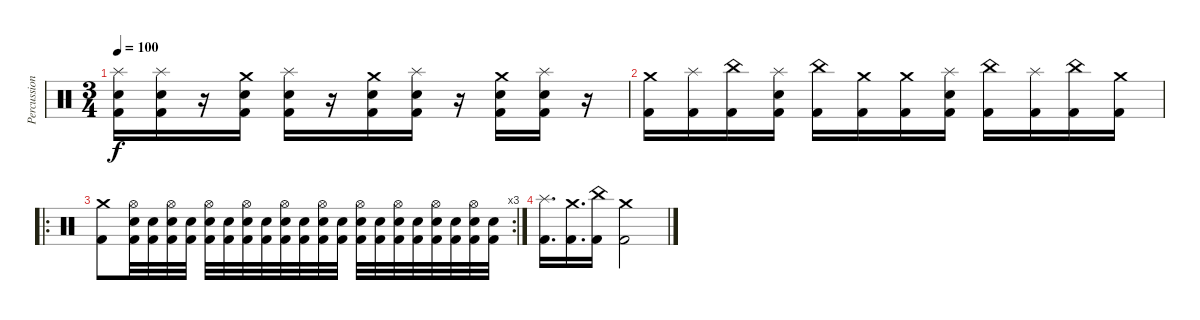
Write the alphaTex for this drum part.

\track ("Percussion" "Percussion") {instrument percussion}
\staff {score}
\articulation defaults
\ts (3 4)
\tempo 100
\clef neutral
\ks c
("Splash (hit)" "Electric Snare (hit)" "Kick (hit) 2").16{dy f} ("Splash (hit)" "Electric Snare (hit)" "Kick (hit) 2").16 r.16 ("Crash medium (hit)" "Electric Snare (hit)" "Kick (hit) 2").16 ("Splash (hit)" "Electric Snare (hit)" "Kick (hit) 2").16 r.16 ("Crash medium (hit)" "Electric Snare (hit)" "Kick (hit) 2").16 ("Splash (hit)" "Electric Snare (hit)" "Kick (hit) 2").16 r.16 ("Crash medium (hit)" "Electric Snare (hit)" "Kick (hit) 2").16 ("Splash (hit)" "Electric Snare (hit)" "Kick (hit) 2").16 r.16 |
("Crash medium (hit)" "Kick (hit) 2").16 ("Splash (hit)" "Kick (hit) 2").16 ("China (hit)" "Kick (hit) 2").16 ("Splash (hit)" "Electric Snare (hit)" "Kick (hit) 2").16 ("China (hit)" "Kick (hit) 2").16 ("Crash medium (hit)" "Kick (hit) 2").16 ("Crash medium (hit)" "Kick (hit) 2").16 ("Splash (hit)" "Electric Snare (hit)" "Kick (hit) 2").16 ("China (hit)" "Kick (hit) 2").16 ("Splash (hit)" "Kick (hit) 2").16 ("China (hit)" "Kick (hit) 2").16 ("Crash medium (hit)" "Kick (hit) 2").16 |
\ro
\rc 3
("Crash medium (hit)" "Kick (hit) 2").8 ("Hi-Hat (open)" "Electric Snare (hit)" "Kick (hit) 2").32 ("Electric Snare (hit)" "Kick (hit) 2").32 ("Hi-Hat (open)" "Electric Snare (hit)" "Kick (hit) 2").32 ("Electric Snare (hit)" "Kick (hit) 2").32 ("Hi-Hat (open)" "Electric Snare (hit)" "Kick (hit) 2").32 ("Electric Snare (hit)" "Kick (hit) 2").32 ("Hi-Hat (open)" "Electric Snare (hit)" "Kick (hit) 2").32 ("Electric Snare (hit)" "Kick (hit) 2").32 ("Hi-Hat (open)" "Electric Snare (hit)" "Kick (hit) 2").32 ("Electric Snare (hit)" "Kick (hit) 2").32 ("Hi-Hat (open)" "Electric Snare (hit)" "Kick (hit) 2").32 ("Electric Snare (hit)" "Kick (hit) 2").32 ("Hi-Hat (open)" "Electric Snare (hit)" "Kick (hit) 2").32 ("Electric Snare (hit)" "Kick (hit) 2").32 ("Hi-Hat (open)" "Electric Snare (hit)" "Kick (hit) 2").32 ("Electric Snare (hit)" "Kick (hit) 2").32 ("Hi-Hat (open)" "Electric Snare (hit)" "Kick (hit) 2").32 ("Electric Snare (hit)" "Kick (hit) 2").32 ("Hi-Hat (open)" "Electric Snare (hit)" "Kick (hit) 2").32 ("Electric Snare (hit)" "Kick (hit) 2").32 |
("Splash (hit)" "Kick (hit) 2").16{d} ("Crash medium (hit)" "Kick (hit) 2").16{d} ("China (hit)" "Kick (hit) 2").16 ("Crash medium (hit)" "Kick (hit) 2").2
